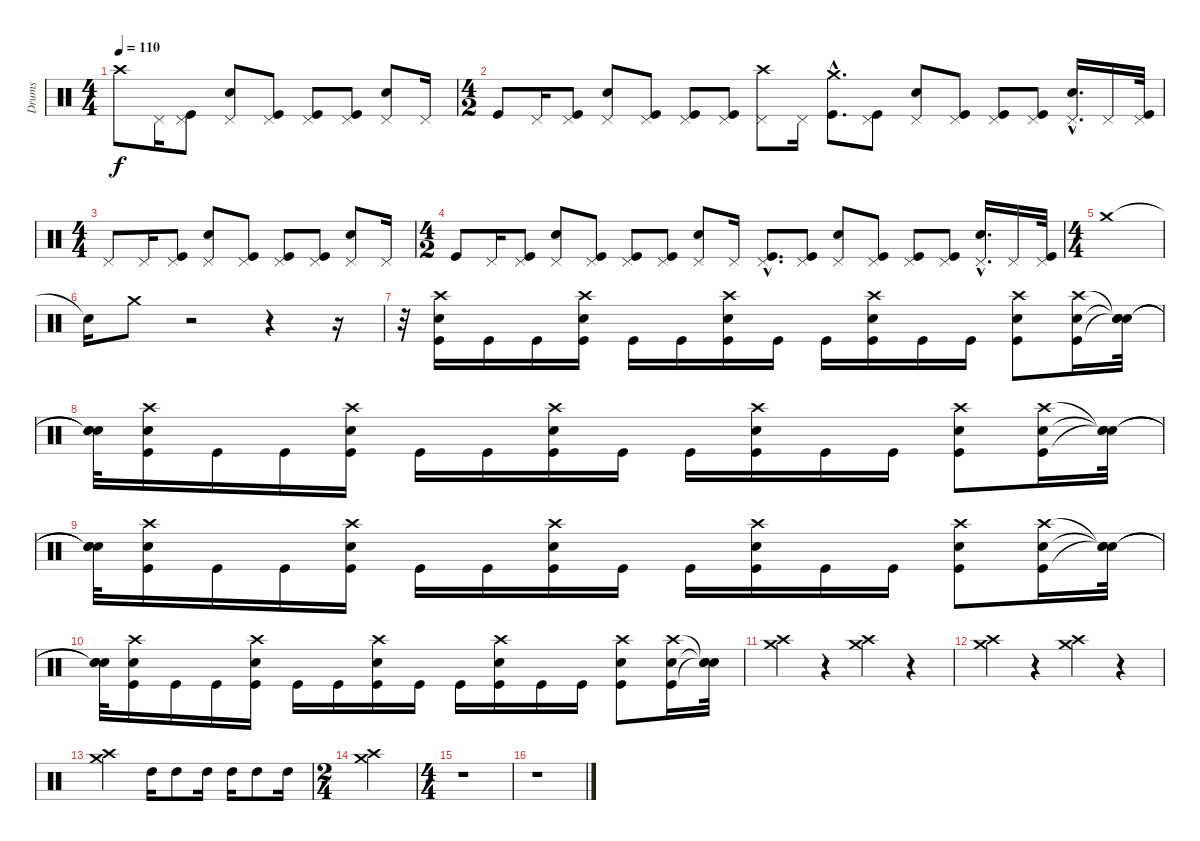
\track ("Drums" "Drums") {instrument percussion}
\staff {score}
\articulation defaults
\ts (4 4)
\tempo 110
\clef neutral
\ks c "Crash high (hit)".8{dy f} "Pedal Hi-Hat (hit)".16
("Pedal Hi-Hat (hit)" "Kick (hit)").8 ("Pedal Hi-Hat (hit)" "Electric Snare (hit)").8 ("Pedal Hi-Hat (hit)" "Kick (hit)").8 ("Pedal Hi-Hat (hit)" "Kick (hit)").8 ("Pedal Hi-Hat (hit)" "Kick (hit)").8 ("Electric Snare (hit)" "Pedal Hi-Hat (hit)").8 "Pedal Hi-Hat (hit)".16 |
\ts (4 2)
"Kick (hit)".8 "Pedal Hi-Hat (hit)".16 ("Pedal Hi-Hat (hit)" "Kick (hit)").8 ("Pedal Hi-Hat (hit)" "Electric Snare (hit)").8 ("Pedal Hi-Hat (hit)" "Kick (hit)").8 ("Pedal Hi-Hat (hit)" "Kick (hit)").8 ("Pedal Hi-Hat (hit)" "Kick (hit)").8 ("Crash high (hit)" "Pedal Hi-Hat (hit)").8 "Pedal Hi-Hat (hit)".16 ("Crash medium (hit)"{hac} "Kick (hit)"{hac}).8{d} ("Pedal Hi-Hat (hit)" "Kick (hit)").8 ("Pedal Hi-Hat (hit)" "Electric Snare (hit)").8 ("Pedal Hi-Hat (hit)" "Kick (hit)").8 ("Pedal Hi-Hat (hit)" "Kick (hit)").8 ("Pedal Hi-Hat (hit)" "Kick (hit)").8 ("Pedal Hi-Hat (hit)"{hac} "Electric Snare (hit)"{hac}).16{d} "Pedal Hi-Hat (hit)".16 ("Pedal Hi-Hat (hit)" "Kick (hit)").32 |
\ts (4 4)
"Pedal Hi-Hat (hit)".8 "Pedal Hi-Hat (hit)".16 ("Pedal Hi-Hat (hit)" "Kick (hit)").8 ("Pedal Hi-Hat (hit)" "Electric Snare (hit)").8 ("Pedal Hi-Hat (hit)" "Kick (hit)").8 ("Pedal Hi-Hat (hit)" "Kick (hit)").8 ("Pedal Hi-Hat (hit)" "Kick (hit)").8 ("Electric Snare (hit)" "Pedal Hi-Hat (hit)").8 "Pedal Hi-Hat (hit)".16 |
\ts (4 2)
"Kick (hit)".8 "Pedal Hi-Hat (hit)".16 ("Pedal Hi-Hat (hit)" "Kick (hit)").8 ("Pedal Hi-Hat (hit)" "Electric Snare (hit)").8 ("Pedal Hi-Hat (hit)" "Kick (hit)").8 ("Pedal Hi-Hat (hit)" "Kick (hit)").8 ("Pedal Hi-Hat (hit)" "Kick (hit)").8 ("Electric Snare (hit)" "Pedal Hi-Hat (hit)").8 "Pedal Hi-Hat (hit)".16 ("Pedal Hi-Hat (hit)"{hac} "Kick (hit)"{hac}).8{d} ("Pedal Hi-Hat (hit)" "Kick (hit)").8 ("Pedal Hi-Hat (hit)" "Electric Snare (hit)").8 ("Pedal Hi-Hat (hit)" "Kick (hit)").8 ("Pedal Hi-Hat (hit)" "Kick (hit)").8 ("Pedal Hi-Hat (hit)" "Kick (hit)").8 ("Pedal Hi-Hat (hit)"{hac} "Electric Snare (hit)"{hac}).16{d} "Pedal Hi-Hat (hit)".16 ("Pedal Hi-Hat (hit)" "Kick (hit)").32 |
\ts (4 4)
"Crash medium (hit)".1 |
"Snare (hit)"{t}.16 "Crash medium (hit)".8 r.2 r.4 r.16 |
r.32 ("Crash high (hit)" "Electric Snare (hit)" "Kick (hit)").16 "Kick (hit)".16 "Kick (hit)".16 ("Crash high (hit)" "Electric Snare (hit)" "Kick (hit)").16 "Kick (hit)".16 "Kick (hit)".16 ("Crash high (hit)" "Electric Snare (hit)" "Kick (hit)").16 "Kick (hit)".16 "Kick (hit)".16 ("Crash high (hit)" "Electric Snare (hit)" "Kick (hit)").16 "Kick (hit)".16 "Kick (hit)".16 ("Crash high (hit)" "Electric Snare (hit)" "Kick (hit)").8 ("Crash high (hit)" "Electric Snare (hit)" "Kick (hit)").16 ("Snare (hit)"{t} "Snare (hit)"{t} "Snare (hit)"{t}).32 |
("Snare (hit)"{t} "Snare (hit)"{t} "Snare (hit)"{t}).32 ("Crash high (hit)" "Electric Snare (hit)" "Kick (hit)").16 "Kick (hit)".16 "Kick (hit)".16 ("Crash high (hit)" "Electric Snare (hit)" "Kick (hit)").16 "Kick (hit)".16 "Kick (hit)".16 ("Crash high (hit)" "Electric Snare (hit)" "Kick (hit)").16 "Kick (hit)".16 "Kick (hit)".16 ("Crash high (hit)" "Electric Snare (hit)" "Kick (hit)").16 "Kick (hit)".16 "Kick (hit)".16 ("Crash high (hit)" "Electric Snare (hit)" "Kick (hit)").8 ("Crash high (hit)" "Electric Snare (hit)" "Kick (hit)").16 ("Snare (hit)"{t} "Snare (hit)"{t} "Snare (hit)"{t}).32 |
("Snare (hit)"{t} "Snare (hit)"{t} "Snare (hit)"{t}).32 ("Crash high (hit)" "Electric Snare (hit)" "Kick (hit)").16 "Kick (hit)".16 "Kick (hit)".16 ("Crash high (hit)" "Electric Snare (hit)" "Kick (hit)").16 "Kick (hit)".16 "Kick (hit)".16 ("Crash high (hit)" "Electric Snare (hit)" "Kick (hit)").16 "Kick (hit)".16 "Kick (hit)".16 ("Crash high (hit)" "Electric Snare (hit)" "Kick (hit)").16 "Kick (hit)".16 "Kick (hit)".16 ("Crash high (hit)" "Electric Snare (hit)" "Kick (hit)").8 ("Crash high (hit)" "Electric Snare (hit)" "Kick (hit)").16 ("Snare (hit)"{t} "Snare (hit)"{t} "Snare (hit)"{t}).32 |
("Snare (hit)"{t} "Snare (hit)"{t} "Snare (hit)"{t}).32 ("Crash high (hit)" "Electric Snare (hit)" "Kick (hit)").16 "Kick (hit)".16 "Kick (hit)".16 ("Crash high (hit)" "Electric Snare (hit)" "Kick (hit)").16 "Kick (hit)".16 "Kick (hit)".16 ("Crash high (hit)" "Electric Snare (hit)" "Kick (hit)").16 "Kick (hit)".16 "Kick (hit)".16 ("Crash high (hit)" "Electric Snare (hit)" "Kick (hit)").16 "Kick (hit)".16 "Kick (hit)".16 ("Crash high (hit)" "Electric Snare (hit)" "Kick (hit)").8 ("Crash high (hit)" "Electric Snare (hit)" "Kick (hit)").16 ("Snare (hit)"{t} "Snare (hit)"{t} "Snare (hit)"{t}).32 |
("Crash high (hit)" "Crash medium (hit)").4 r.4 ("Crash medium (hit)" "Crash high (hit)").4 r.4 |
("Crash medium (hit)" "Crash high (hit)").4 r.4 ("Crash high (hit)" "Crash medium (hit)").4 r.4 |
("Crash medium (hit)" "Crash high (hit)").2 "High Tom (hit)".16 "High Tom (hit)".8 "High Tom (hit)".16 "High Tom (hit)".16 "High Tom (hit)".8 "High Tom (hit)".16 |
\ts (2 4)
("Crash medium (hit)" "Crash high (hit)").2 |
\ts (4 4)
r.1 |
r.1
